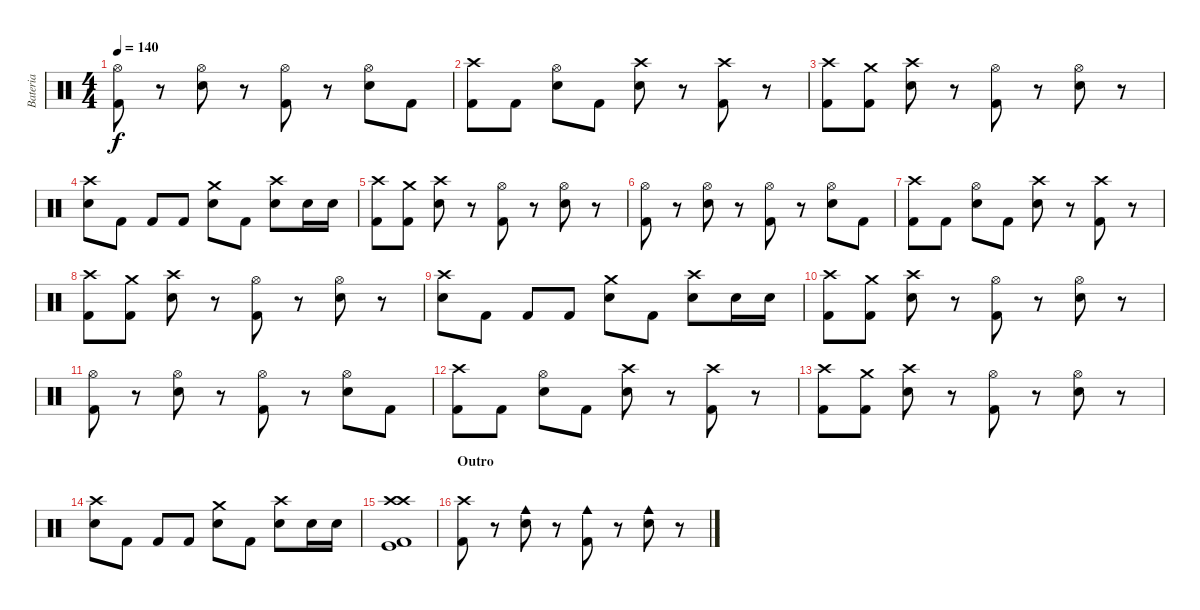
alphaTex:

\track ("Bateria" "Bateria") {instrument percussion}
\staff {score}
\articulation defaults
\ts (4 4)
\tempo 140
\clef neutral
\ks c
("Hi-Hat (open)" "Kick (hit) 2").8{dy f} r.8 ("Hi-Hat (open)" "Snare (hit) 2").8 r.8 ("Hi-Hat (open)" "Kick (hit) 2").8 r.8 ("Hi-Hat (open)" "Snare (hit) 2").8 "Kick (hit) 2".8 |
("Crash high (hit)" "Kick (hit) 2").8 "Kick (hit) 2".8 ("Hi-Hat (open)" "Snare (hit) 2").8 "Kick (hit) 2".8 ("Crash high (hit)" "Snare (hit) 2").8 r.8 ("Crash high (hit)" "Kick (hit) 2").8 r.8 |
("Crash high (hit)" "Kick (hit) 2").8 ("Crash medium (hit)" "Kick (hit) 2").8 ("Crash high (hit)" "Snare (hit) 2").8 r.8 ("Hi-Hat (open)" "Kick (hit) 2").8 r.8 ("Hi-Hat (open)" "Snare (hit) 2").8 r.8 |
("Crash high (hit)" "Snare (hit) 2").8 "Kick (hit) 2".8 "Kick (hit) 2".8 "Kick (hit) 2".8 ("Crash medium (hit)" "Snare (hit) 2").8 "Kick (hit) 2".8 ("Crash high (hit)" "Snare (hit) 2").8 "Snare (hit) 2".16 "Snare (hit) 2".16 |
("Crash high (hit)" "Kick (hit) 2").8 ("Crash medium (hit)" "Kick (hit) 2").8 ("Crash high (hit)" "Snare (hit) 2").8 r.8 ("Hi-Hat (open)" "Kick (hit) 2").8 r.8 ("Hi-Hat (open)" "Snare (hit) 2").8 r.8 |
("Hi-Hat (open)" "Kick (hit) 2").8 r.8 ("Hi-Hat (open)" "Snare (hit) 2").8 r.8 ("Hi-Hat (open)" "Kick (hit) 2").8 r.8 ("Hi-Hat (open)" "Snare (hit) 2").8 "Kick (hit) 2".8 |
("Crash high (hit)" "Kick (hit) 2").8 "Kick (hit) 2".8 ("Hi-Hat (open)" "Snare (hit) 2").8 "Kick (hit) 2".8 ("Crash high (hit)" "Snare (hit) 2").8 r.8 ("Crash high (hit)" "Kick (hit) 2").8 r.8 |
("Crash high (hit)" "Kick (hit) 2").8 ("Crash medium (hit)" "Kick (hit) 2").8 ("Crash high (hit)" "Snare (hit) 2").8 r.8 ("Hi-Hat (open)" "Kick (hit) 2").8 r.8 ("Hi-Hat (open)" "Snare (hit) 2").8 r.8 |
("Crash high (hit)" "Snare (hit) 2").8 "Kick (hit) 2".8 "Kick (hit) 2".8 "Kick (hit) 2".8 ("Crash medium (hit)" "Snare (hit) 2").8 "Kick (hit) 2".8 ("Crash high (hit)" "Snare (hit) 2").8 "Snare (hit) 2".16 "Snare (hit) 2".16 |
("Crash high (hit)" "Kick (hit) 2").8 ("Crash medium (hit)" "Kick (hit) 2").8 ("Crash high (hit)" "Snare (hit) 2").8 r.8 ("Hi-Hat (open)" "Kick (hit) 2").8 r.8 ("Hi-Hat (open)" "Snare (hit) 2").8 r.8 |
("Hi-Hat (open)" "Kick (hit) 2").8 r.8 ("Hi-Hat (open)" "Snare (hit) 2").8 r.8 ("Hi-Hat (open)" "Kick (hit) 2").8 r.8 ("Hi-Hat (open)" "Snare (hit) 2").8 "Kick (hit) 2".8 |
("Crash high (hit)" "Kick (hit) 2").8 "Kick (hit) 2".8 ("Hi-Hat (open)" "Snare (hit) 2").8 "Kick (hit) 2".8 ("Crash high (hit)" "Snare (hit) 2").8 r.8 ("Crash high (hit)" "Kick (hit) 2").8 r.8 |
("Crash high (hit)" "Kick (hit) 2").8 ("Crash medium (hit)" "Kick (hit) 2").8 ("Crash high (hit)" "Snare (hit) 2").8 r.8 ("Hi-Hat (open)" "Kick (hit) 2").8 r.8 ("Hi-Hat (open)" "Snare (hit) 2").8 r.8 |
("Crash high (hit)" "Snare (hit) 2").8 "Kick (hit) 2".8 "Kick (hit) 2".8 "Kick (hit) 2".8 ("Crash medium (hit)" "Snare (hit) 2").8 "Kick (hit) 2".8 ("Crash high (hit)" "Snare (hit) 2").8 "Snare (hit) 2".16 "Snare (hit) 2".16 |
("Crash high (hit)" "Crash high (hit)" "Kick (hit)" "Kick (hit) 2").1 |
\section ("" "Outro")
("Crash high (hit)" "Kick (hit) 2").8 r.8 ("Cowbell medium (hit)" "Snare (hit) 2").8 r.8 ("Cowbell medium (hit)" "Kick (hit) 2").8 r.8 ("Cowbell medium (hit)" "Snare (hit) 2").8 r.8
